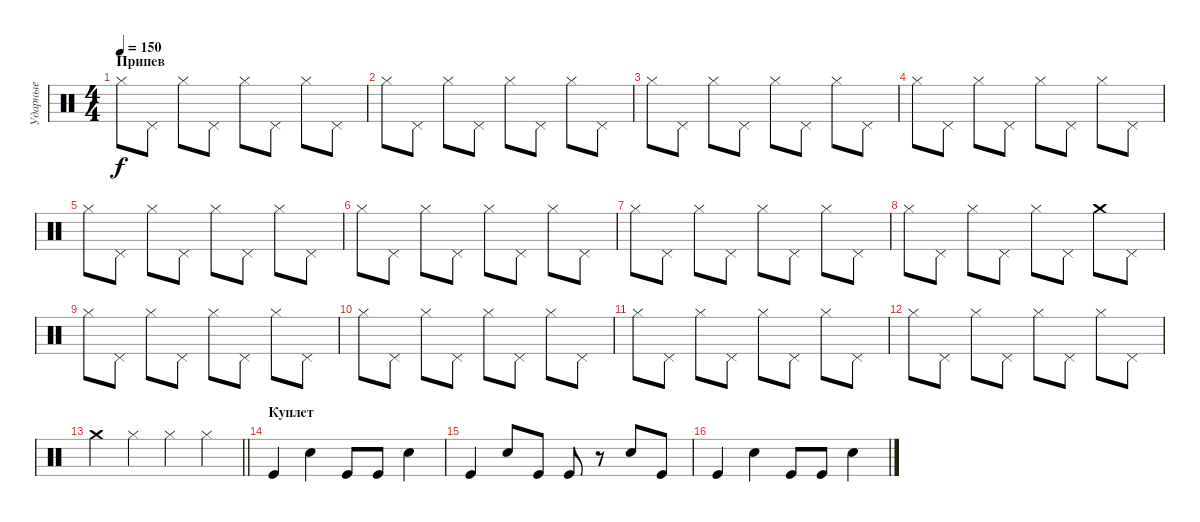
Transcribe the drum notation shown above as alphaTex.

\track ("Ударные" "Ударные") {instrument percussion}
\staff {score}
\articulation defaults
\ts (4 4)
\section ("" "Припев")
\tempo 150
\clef neutral
\ks c "Hi-Hat (closed)".8{dy f} "Pedal Hi-Hat (hit)".8 "Hi-Hat (closed)".8 "Pedal Hi-Hat (hit)".8 "Hi-Hat (closed)".8 "Pedal Hi-Hat (hit)".8 "Hi-Hat (closed)".8 "Pedal Hi-Hat (hit)".8
|
"Hi-Hat (closed)".8 "Pedal Hi-Hat (hit)".8 "Hi-Hat (closed)".8 "Pedal Hi-Hat (hit)".8 "Hi-Hat (closed)".8 "Pedal Hi-Hat (hit)".8 "Hi-Hat (closed)".8 "Pedal Hi-Hat (hit)".8 |
"Hi-Hat (closed)".8 "Pedal Hi-Hat (hit)".8 "Hi-Hat (closed)".8 "Pedal Hi-Hat (hit)".8 "Hi-Hat (closed)".8 "Pedal Hi-Hat (hit)".8 "Hi-Hat (closed)".8 "Pedal Hi-Hat (hit)".8 |
"Hi-Hat (closed)".8 "Pedal Hi-Hat (hit)".8 "Hi-Hat (closed)".8 "Pedal Hi-Hat (hit)".8 "Hi-Hat (closed)".8 "Pedal Hi-Hat (hit)".8 "Hi-Hat (closed)".8 "Pedal Hi-Hat (hit)".8 |
"Hi-Hat (closed)".8 "Pedal Hi-Hat (hit)".8 "Hi-Hat (closed)".8 "Pedal Hi-Hat (hit)".8 "Hi-Hat (closed)".8 "Pedal Hi-Hat (hit)".8 "Hi-Hat (closed)".8 "Pedal Hi-Hat (hit)".8 |
"Hi-Hat (closed)".8 "Pedal Hi-Hat (hit)".8 "Hi-Hat (closed)".8 "Pedal Hi-Hat (hit)".8 "Hi-Hat (closed)".8 "Pedal Hi-Hat (hit)".8 "Hi-Hat (closed)".8 "Pedal Hi-Hat (hit)".8 |
"Hi-Hat (closed)".8 "Pedal Hi-Hat (hit)".8 "Hi-Hat (closed)".8 "Pedal Hi-Hat (hit)".8 "Hi-Hat (closed)".8 "Pedal Hi-Hat (hit)".8 "Hi-Hat (closed)".8 "Pedal Hi-Hat (hit)".8 |
"Hi-Hat (closed)".8 "Pedal Hi-Hat (hit)".8 "Hi-Hat (closed)".8 "Pedal Hi-Hat (hit)".8 "Hi-Hat (closed)".8 "Pedal Hi-Hat (hit)".8 "Crash medium (hit)".8 "Pedal Hi-Hat (hit)".8 |
"Hi-Hat (closed)".8 "Pedal Hi-Hat (hit)".8 "Hi-Hat (closed)".8 "Pedal Hi-Hat (hit)".8 "Hi-Hat (closed)".8 "Pedal Hi-Hat (hit)".8 "Hi-Hat (closed)".8 "Pedal Hi-Hat (hit)".8 |
"Hi-Hat (closed)".8 "Pedal Hi-Hat (hit)".8 "Hi-Hat (closed)".8 "Pedal Hi-Hat (hit)".8 "Hi-Hat (closed)".8 "Pedal Hi-Hat (hit)".8 "Hi-Hat (closed)".8 "Pedal Hi-Hat (hit)".8 |
"Hi-Hat (closed)".8 "Pedal Hi-Hat (hit)".8 "Hi-Hat (closed)".8 "Pedal Hi-Hat (hit)".8 "Hi-Hat (closed)".8 "Pedal Hi-Hat (hit)".8 "Hi-Hat (closed)".8 "Pedal Hi-Hat (hit)".8 |
"Hi-Hat (closed)".8 "Pedal Hi-Hat (hit)".8 "Hi-Hat (closed)".8 "Pedal Hi-Hat (hit)".8 "Hi-Hat (closed)".8 "Pedal Hi-Hat (hit)".8 "Hi-Hat (closed)".8 "Pedal Hi-Hat (hit)".8 |
\barLineRight lightlight "Crash medium (hit)".4 "Hi-Hat (closed)".4 "Hi-Hat (closed)".4 "Hi-Hat (closed)".4
|
\section ("" "Куплет")
"Kick (hit)".4 "Snare (hit) 2".4 "Kick (hit)".8 "Kick (hit)".8 "Snare (hit) 2".4 |
"Kick (hit)".4 "Snare (hit) 2".8 "Kick (hit)".8 "Kick (hit)".8 r.8 "Snare (hit) 2".8 "Kick (hit)".8 |
"Kick (hit)".4 "Snare (hit) 2".4 "Kick (hit)".8 "Kick (hit)".8 "Snare (hit) 2".4
